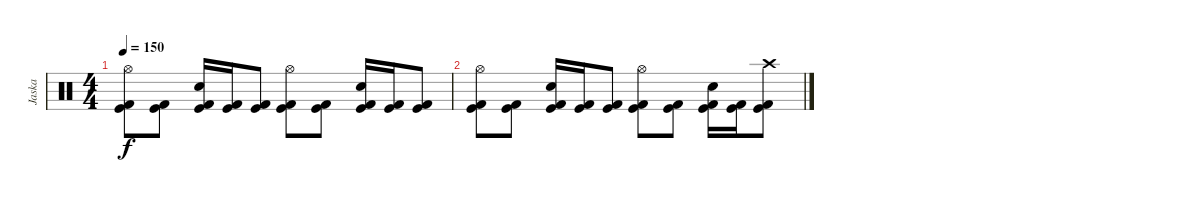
\track ("Jaska" "Jaska") {instrument percussion}
\staff {score}
\articulation defaults
\ts (4 4)
\tempo 150
\clef neutral
\ks c
("Hi-Hat (open)" "Kick (hit)" "Kick (hit) 2").8{dy f} ("Kick (hit)" "Kick (hit) 2").8 ("Electric Snare (hit)" "Kick (hit)" "Kick (hit) 2").16 ("Kick (hit)" "Kick (hit) 2").16 ("Kick (hit)" "Kick (hit) 2").8 ("Hi-Hat (open)" "Kick (hit)" "Kick (hit) 2").8 ("Kick (hit)" "Kick (hit) 2").8 ("Electric Snare (hit)" "Kick (hit)" "Kick (hit) 2").16 ("Kick (hit)" "Kick (hit) 2").16 ("Kick (hit)" "Kick (hit) 2").8 |
("Hi-Hat (open)" "Kick (hit)" "Kick (hit) 2").8 ("Kick (hit)" "Kick (hit) 2").8 ("Electric Snare (hit)" "Kick (hit)" "Kick (hit) 2").16 ("Kick (hit)" "Kick (hit) 2").16 ("Kick (hit)" "Kick (hit) 2").8 ("Hi-Hat (open)" "Kick (hit)" "Kick (hit) 2").8 ("Kick (hit)" "Kick (hit) 2").8 ("Electric Snare (hit)" "Kick (hit)" "Kick (hit) 2").16 ("Kick (hit)" "Kick (hit) 2").16 ("Crash high (hit)" "Kick (hit)" "Kick (hit) 2").8
